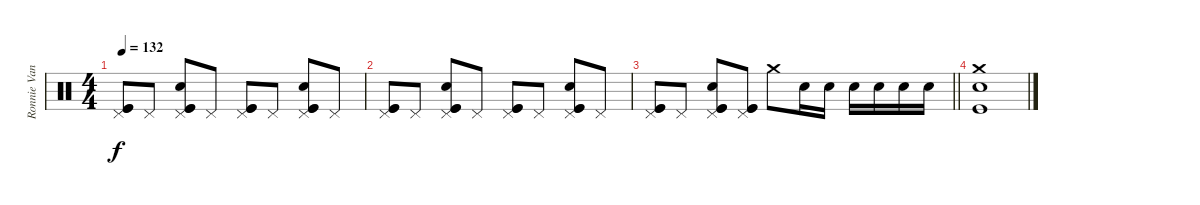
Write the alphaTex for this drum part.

\track ("Ronnie Vanucci" "Ronnie Van") {instrument percussion}
\staff {score}
\articulation defaults
\ts (4 4)
\tempo 132
\clef neutral
\ks c
("Pedal Hi-Hat (hit)" "Kick (hit)" "Kick (hit)").8{dy f} "Pedal Hi-Hat (hit)".8 ("Pedal Hi-Hat (hit)" "Electric Snare (hit)" "Kick (hit)" "Kick (hit)").8 "Pedal Hi-Hat (hit)".8 ("Pedal Hi-Hat (hit)" "Kick (hit)" "Kick (hit)").8 "Pedal Hi-Hat (hit)".8 ("Pedal Hi-Hat (hit)" "Electric Snare (hit)" "Kick (hit)" "Kick (hit)").8 "Pedal Hi-Hat (hit)".8 |
("Pedal Hi-Hat (hit)" "Kick (hit)" "Kick (hit)").8 "Pedal Hi-Hat (hit)".8 ("Pedal Hi-Hat (hit)" "Electric Snare (hit)" "Kick (hit)" "Kick (hit)").8 "Pedal Hi-Hat (hit)".8 ("Pedal Hi-Hat (hit)" "Kick (hit)" "Kick (hit)").8 "Pedal Hi-Hat (hit)".8 ("Pedal Hi-Hat (hit)" "Electric Snare (hit)" "Kick (hit)" "Kick (hit)").8 "Pedal Hi-Hat (hit)".8 |
\barLineRight lightlight
("Pedal Hi-Hat (hit)" "Kick (hit)" "Kick (hit)").8 "Pedal Hi-Hat (hit)".8 ("Pedal Hi-Hat (hit)" "Electric Snare (hit)" "Kick (hit)" "Kick (hit)").8 ("Pedal Hi-Hat (hit)" "Kick (hit)" "Kick (hit)").8 "Crash medium (hit)".8 "Electric Snare (hit)".16 "Electric Snare (hit)".16 "Electric Snare (hit)".16 "Electric Snare (hit)".16 "Electric Snare (hit)".16 "Electric Snare (hit)".16 |
("Crash medium (hit)" "Electric Snare (hit)" "Kick (hit)").1
